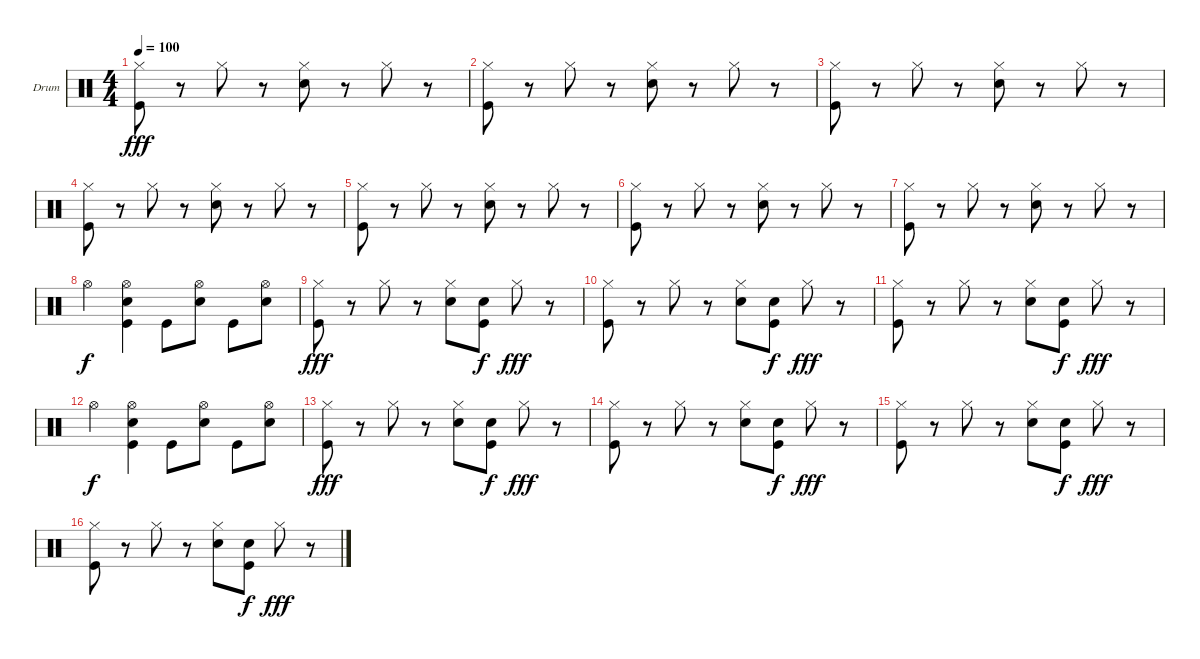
\defaultSystemsLayout 4
\bracketExtendMode groupsimilarinstruments
\firstSystemTrackNameOrientation horizontal
\otherSystemsTrackNameOrientation horizontal
\track ("Drum" "Drum") {instrument percussion}
\staff {score}
\articulation defaults
\ts (4 4)
\tempo 100
\clef neutral
\scale
0.333333
\ks c
("Hi-Hat (closed)" "Kick (hit)").8{dy fff} r.8 "Hi-Hat (closed)".8 r.8 ("Hi-Hat (closed)" "Snare (hit) 2").8 r.8 "Hi-Hat (closed)".8 r.8 |
\scale
0.333333 ("Hi-Hat (closed)" "Kick (hit)").8 r.8 "Hi-Hat (closed)".8 r.8 ("Hi-Hat (closed)" "Snare (hit) 2").8 r.8 "Hi-Hat (closed)".8 r.8 |
\scale
0.333333 ("Hi-Hat (closed)" "Kick (hit)").8 r.8 "Hi-Hat (closed)".8 r.8 ("Hi-Hat (closed)" "Snare (hit) 2").8 r.8 "Hi-Hat (closed)".8 r.8 |
\scale
0.333333 ("Hi-Hat (closed)" "Kick (hit)").8 r.8 "Hi-Hat (closed)".8 r.8 ("Hi-Hat (closed)" "Snare (hit) 2").8 r.8 "Hi-Hat (closed)".8 r.8 |
\scale
0.333333 ("Hi-Hat (closed)" "Kick (hit)").8 r.8 "Hi-Hat (closed)".8 r.8 ("Hi-Hat (closed)" "Snare (hit) 2").8 r.8 "Hi-Hat (closed)".8 r.8 |
\scale
0.333333 ("Hi-Hat (closed)" "Kick (hit)").8 r.8 "Hi-Hat (closed)".8 r.8 ("Hi-Hat (closed)" "Snare (hit) 2").8 r.8 "Hi-Hat (closed)".8 r.8 |
\scale
0.333333 ("Hi-Hat (closed)" "Kick (hit)").8 r.8 "Hi-Hat (closed)".8 r.8 ("Hi-Hat (closed)" "Snare (hit) 2").8 r.8 "Hi-Hat (closed)".8 r.8 |
\scale
0.333333 "Hi-Hat (open)".4{dy f} ("Kick (hit)" "Snare (hit) 2" "Hi-Hat (open)").4 "Kick (hit)".8 ("Hi-Hat (open)" "Snare (hit) 2").8 "Kick (hit)".8 ("Snare (hit) 2" "Hi-Hat (open)").8 |
\scale
0.333333 ("Hi-Hat (closed)" "Kick (hit)").8{dy fff} r.8 "Hi-Hat (closed)".8 r.8 ("Hi-Hat (closed)" "Snare (hit) 2").8 ("Snare (hit) 2" "Kick (hit)").8{dy f} "Hi-Hat (closed)".8{dy fff} r.8 |
\scale
0.333333 ("Hi-Hat (closed)" "Kick (hit)").8 r.8 "Hi-Hat (closed)".8 r.8 ("Hi-Hat (closed)" "Snare (hit) 2").8 ("Snare (hit) 2" "Kick (hit)").8{dy f} "Hi-Hat (closed)".8{dy fff} r.8 |
\scale
0.333333 ("Hi-Hat (closed)" "Kick (hit)").8 r.8 "Hi-Hat (closed)".8 r.8 ("Hi-Hat (closed)" "Snare (hit) 2").8 ("Snare (hit) 2" "Kick (hit)").8{dy f} "Hi-Hat (closed)".8{dy fff} r.8 |
\scale
0.333333 "Hi-Hat (open)".4{dy f} ("Kick (hit)" "Snare (hit) 2" "Hi-Hat (open)").4 "Kick (hit)".8 ("Hi-Hat (open)" "Snare (hit) 2").8 "Kick (hit)".8 ("Snare (hit) 2" "Hi-Hat (open)").8 |
\scale
0.333333 ("Hi-Hat (closed)" "Kick (hit)").8{dy fff} r.8 "Hi-Hat (closed)".8 r.8 ("Hi-Hat (closed)" "Snare (hit) 2").8 ("Snare (hit) 2" "Kick (hit)").8{dy f} "Hi-Hat (closed)".8{dy fff} r.8 |
\scale
0.333333 ("Hi-Hat (closed)" "Kick (hit)").8 r.8 "Hi-Hat (closed)".8 r.8 ("Hi-Hat (closed)" "Snare (hit) 2").8 ("Snare (hit) 2" "Kick (hit)").8{dy f} "Hi-Hat (closed)".8{dy fff} r.8 |
\scale
0.333333 ("Hi-Hat (closed)" "Kick (hit)").8 r.8 "Hi-Hat (closed)".8 r.8 ("Hi-Hat (closed)" "Snare (hit) 2").8 ("Snare (hit) 2" "Kick (hit)").8{dy f} "Hi-Hat (closed)".8{dy fff} r.8 |
\scale
0.333333 ("Hi-Hat (closed)" "Kick (hit)").8 r.8 "Hi-Hat (closed)".8 r.8 ("Hi-Hat (closed)" "Snare (hit) 2").8 ("Snare (hit) 2" "Kick (hit)").8{dy f} "Hi-Hat (closed)".8{dy fff} r.8
